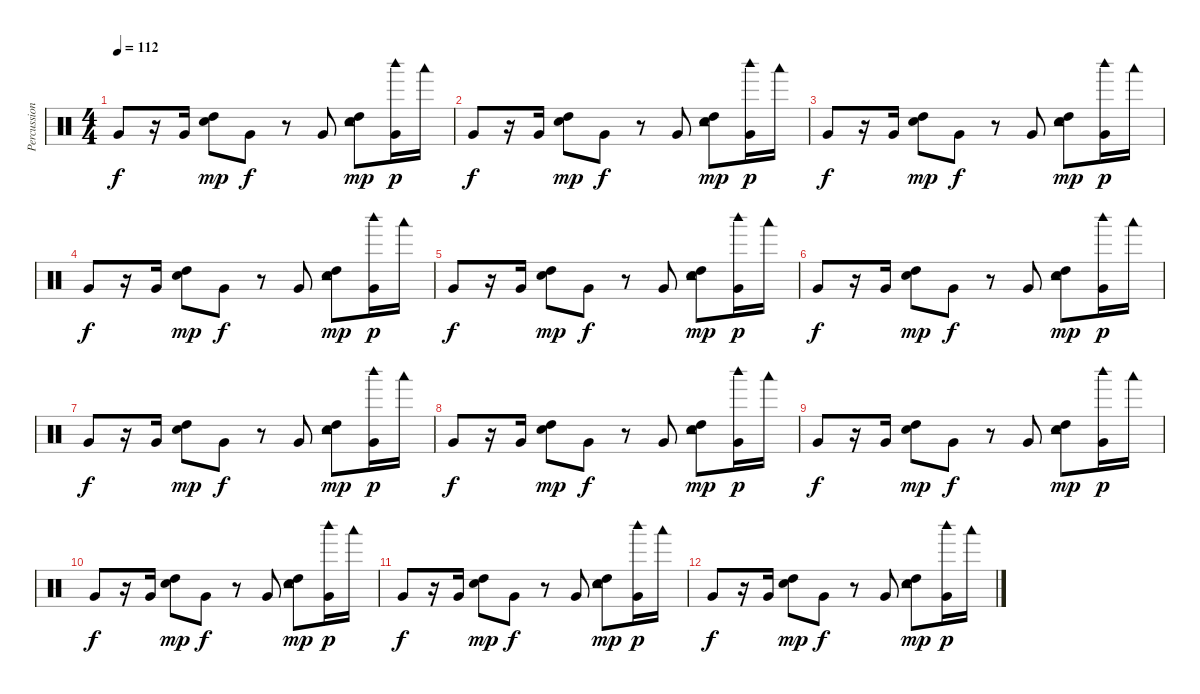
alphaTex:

\track ("Percussion" "Percussion") {instrument percussion}
\staff {score}
\articulation defaults
\ts (4 4)
\tempo 112
\clef neutral
\ks c "Very Low Tom (hit)".8{dy f}
r.16 "Very Low Tom (hit)".16 ("Snare (hit) 2" "High Tom (hit)").8{dy mp} "Very Low Tom (hit)".8{dy f} r.8 "Very Low Tom (hit)".8 ("Tambourine (hit)" "Snare (hit) 2" "High Tom (hit)").8{dy mp} ("Woodblock high (hit)" "Very Low Tom (hit)").16{dy p} "Woodblock low (hit)".16 |
"Very Low Tom (hit)".8{dy f} r.16 "Very Low Tom (hit)".16 ("Snare (hit) 2" "High Tom (hit)").8{dy mp} "Very Low Tom (hit)".8{dy f} r.8 "Very Low Tom (hit)".8 ("Tambourine (hit)" "Snare (hit) 2" "High Tom (hit)").8{dy mp} ("Woodblock high (hit)" "Very Low Tom (hit)").16{dy p} "Woodblock low (hit)".16 |
"Very Low Tom (hit)".8{dy f} r.16 "Very Low Tom (hit)".16 ("Snare (hit) 2" "High Tom (hit)").8{dy mp} "Very Low Tom (hit)".8{dy f} r.8 "Very Low Tom (hit)".8 ("Tambourine (hit)" "Snare (hit) 2" "High Tom (hit)").8{dy mp} ("Woodblock high (hit)" "Very Low Tom (hit)").16{dy p} "Woodblock low (hit)".16 |
"Very Low Tom (hit)".8{dy f} r.16 "Very Low Tom (hit)".16 ("Snare (hit) 2" "High Tom (hit)").8{dy mp} "Very Low Tom (hit)".8{dy f} r.8 "Very Low Tom (hit)".8 ("Tambourine (hit)" "Snare (hit) 2" "High Tom (hit)").8{dy mp} ("Woodblock high (hit)" "Very Low Tom (hit)").16{dy p} "Woodblock low (hit)".16 |
"Very Low Tom (hit)".8{dy f} r.16 "Very Low Tom (hit)".16 ("Snare (hit) 2" "High Tom (hit)").8{dy mp} "Very Low Tom (hit)".8{dy f} r.8 "Very Low Tom (hit)".8 ("Tambourine (hit)" "Snare (hit) 2" "High Tom (hit)").8{dy mp} ("Woodblock high (hit)" "Very Low Tom (hit)").16{dy p} "Woodblock low (hit)".16 |
"Very Low Tom (hit)".8{dy f} r.16 "Very Low Tom (hit)".16 ("Snare (hit) 2" "High Tom (hit)").8{dy mp} "Very Low Tom (hit)".8{dy f} r.8 "Very Low Tom (hit)".8 ("Tambourine (hit)" "Snare (hit) 2" "High Tom (hit)").8{dy mp} ("Woodblock high (hit)" "Very Low Tom (hit)").16{dy p} "Woodblock low (hit)".16 |
"Very Low Tom (hit)".8{dy f} r.16 "Very Low Tom (hit)".16 ("Snare (hit) 2" "High Tom (hit)").8{dy mp} "Very Low Tom (hit)".8{dy f} r.8 "Very Low Tom (hit)".8 ("Tambourine (hit)" "Snare (hit) 2" "High Tom (hit)").8{dy mp} ("Woodblock high (hit)" "Very Low Tom (hit)").16{dy p} "Woodblock low (hit)".16 |
"Very Low Tom (hit)".8{dy f} r.16 "Very Low Tom (hit)".16 ("Snare (hit) 2" "High Tom (hit)").8{dy mp} "Very Low Tom (hit)".8{dy f} r.8 "Very Low Tom (hit)".8 ("Tambourine (hit)" "Snare (hit) 2" "High Tom (hit)").8{dy mp} ("Woodblock high (hit)" "Very Low Tom (hit)").16{dy p} "Woodblock low (hit)".16 |
"Very Low Tom (hit)".8{dy f} r.16 "Very Low Tom (hit)".16 ("Snare (hit) 2" "High Tom (hit)").8{dy mp} "Very Low Tom (hit)".8{dy f} r.8 "Very Low Tom (hit)".8 ("Tambourine (hit)" "Snare (hit) 2" "High Tom (hit)").8{dy mp} ("Woodblock high (hit)" "Very Low Tom (hit)").16{dy p} "Woodblock low (hit)".16 |
"Very Low Tom (hit)".8{dy f} r.16 "Very Low Tom (hit)".16 ("Snare (hit) 2" "High Tom (hit)").8{dy mp} "Very Low Tom (hit)".8{dy f} r.8 "Very Low Tom (hit)".8 ("Tambourine (hit)" "Snare (hit) 2" "High Tom (hit)").8{dy mp} ("Woodblock high (hit)" "Very Low Tom (hit)").16{dy p} "Woodblock low (hit)".16 |
"Very Low Tom (hit)".8{dy f} r.16 "Very Low Tom (hit)".16 ("Snare (hit) 2" "High Tom (hit)").8{dy mp} "Very Low Tom (hit)".8{dy f} r.8 "Very Low Tom (hit)".8 ("Tambourine (hit)" "Snare (hit) 2" "High Tom (hit)").8{dy mp} ("Woodblock high (hit)" "Very Low Tom (hit)").16{dy p volume 13} "Woodblock low (hit)".16{volume 13} |
"Very Low Tom (hit)".8{dy f volume 12} r.16 "Very Low Tom (hit)".16{volume 10} ("Snare (hit) 2" "High Tom (hit)").8{dy mp volume 9} "Very Low Tom (hit)".8{dy f volume 8} r.8 "Very Low Tom (hit)".8{volume 2} ("Tambourine (hit)" "Snare (hit) 2" "High Tom (hit)").8{dy mp volume 0} ("Woodblock high (hit)" "Very Low Tom (hit)").16{dy p volume 0} "Woodblock low (hit)".16{volume 0}
